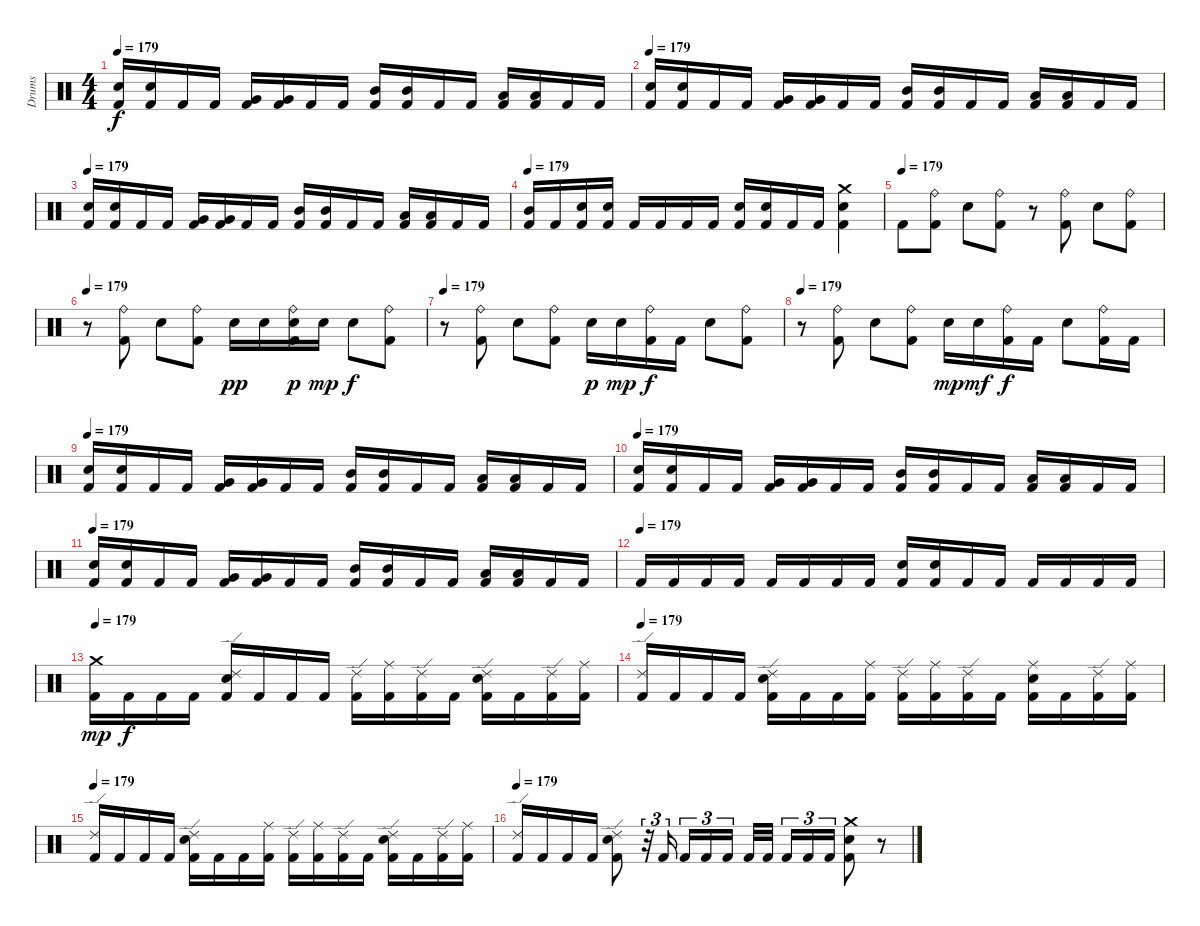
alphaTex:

\track ("Drums" "Drums") {instrument percussion}
\staff {score}
\articulation defaults
\ts (4 4)
\tempo 179
\clef neutral
\ks c
("Electric Snare (hit)" "Kick (hit) 2").16{dy f} ("Electric Snare (hit)" "Kick (hit) 2").16 "Kick (hit) 2".16 "Kick (hit) 2".16 ("Very Low Tom (hit)" "Kick (hit) 2").16 ("Very Low Tom (hit)" "Kick (hit) 2").16 "Kick (hit) 2".16 "Kick (hit) 2".16 ("Mid Tom (hit)" "Kick (hit) 2").16 ("Mid Tom (hit)" "Kick (hit) 2").16 "Kick (hit) 2".16 "Kick (hit) 2".16 ("Low Tom (hit)" "Kick (hit) 2").16 ("Low Tom (hit)" "Kick (hit) 2").16 "Kick (hit) 2".16 "Kick (hit) 2".16 |
\tempo 179
("Electric Snare (hit)" "Kick (hit) 2").16 ("Electric Snare (hit)" "Kick (hit) 2").16 "Kick (hit) 2".16 "Kick (hit) 2".16 ("Very Low Tom (hit)" "Kick (hit) 2").16 ("Very Low Tom (hit)" "Kick (hit) 2").16 "Kick (hit) 2".16 "Kick (hit) 2".16 ("Mid Tom (hit)" "Kick (hit) 2").16 ("Mid Tom (hit)" "Kick (hit) 2").16 "Kick (hit) 2".16 "Kick (hit) 2".16 ("Low Tom (hit)" "Kick (hit) 2").16 ("Low Tom (hit)" "Kick (hit) 2").16 "Kick (hit) 2".16 "Kick (hit) 2".16 |
\tempo 179
("Electric Snare (hit)" "Kick (hit) 2").16 ("Electric Snare (hit)" "Kick (hit) 2").16 "Kick (hit) 2".16 "Kick (hit) 2".16 ("Very Low Tom (hit)" "Kick (hit) 2").16 ("Very Low Tom (hit)" "Kick (hit) 2").16 "Kick (hit) 2".16 "Kick (hit) 2".16 ("Mid Tom (hit)" "Kick (hit) 2").16 ("Mid Tom (hit)" "Kick (hit) 2").16 "Kick (hit) 2".16 "Kick (hit) 2".16 ("Low Tom (hit)" "Kick (hit) 2").16 ("Low Tom (hit)" "Kick (hit) 2").16 "Kick (hit) 2".16 "Kick (hit) 2".16 |
\tempo 179
("Mid Tom (hit)" "Kick (hit) 2").16 "Kick (hit) 2".16 ("Electric Snare (hit)" "Kick (hit) 2").16 ("Electric Snare (hit)" "Kick (hit) 2").16 "Kick (hit) 2".16 "Kick (hit) 2".16 "Kick (hit) 2".16 "Kick (hit) 2".16 ("Electric Snare (hit)" "Kick (hit) 2").16 ("Electric Snare (hit)" "Kick (hit) 2").16 "Kick (hit) 2".16 "Kick (hit) 2".16 ("Crash medium (hit)" "Electric Snare (hit)" "Kick (hit) 2").4 |
\tempo (179)
"Kick (hit) 2".8 ("Ride (bell)" "Kick (hit) 2").8 "Electric Snare (hit)".8 ("Ride (bell)" "Kick (hit) 2").8 r.8 ("Ride (bell)" "Kick (hit) 2").8 "Electric Snare (hit)".8 ("Ride (bell)" "Kick (hit) 2").8 |
\tempo 179
r.8 ("Ride (bell)" "Kick (hit) 2").8 "Electric Snare (hit)".8 ("Ride (bell)" "Kick (hit) 2").8 "Electric Snare (hit)".16{dy pp} "Electric Snare (hit)".16 ("Ride (bell)" "Electric Snare (hit)" "Kick (hit) 2").16{dy p} "Electric Snare (hit)".16{dy mp} "Electric Snare (hit)".8{dy f} ("Ride (bell)" "Kick (hit) 2").8 |
\tempo 179
r.8 ("Ride (bell)" "Kick (hit) 2").8 "Electric Snare (hit)".8 ("Ride (bell)" "Kick (hit) 2").8 "Electric Snare (hit)".16{dy p} "Electric Snare (hit)".16{dy mp} ("Ride (bell)" "Kick (hit) 2").16{dy f} "Kick (hit) 2".16 "Electric Snare (hit)".8 ("Ride (bell)" "Kick (hit) 2").8 |
\tempo 179
r.8 ("Ride (bell)" "Kick (hit) 2").8 "Electric Snare (hit)".8 ("Ride (bell)" "Kick (hit) 2").8 "Electric Snare (hit)".16{dy mp} "Electric Snare (hit)".16{dy mf} ("Ride (bell)" "Kick (hit) 2").16{dy f} "Kick (hit) 2".16 "Electric Snare (hit)".8 ("Ride (bell)" "Kick (hit) 2").16 "Kick (hit) 2".16 |
\tempo 179
("Electric Snare (hit)" "Kick (hit) 2").16 ("Electric Snare (hit)" "Kick (hit) 2").16 "Kick (hit) 2".16 "Kick (hit) 2".16 ("Very Low Tom (hit)" "Kick (hit) 2").16 ("Very Low Tom (hit)" "Kick (hit) 2").16 "Kick (hit) 2".16 "Kick (hit) 2".16 ("Mid Tom (hit)" "Kick (hit) 2").16 ("Mid Tom (hit)" "Kick (hit) 2").16 "Kick (hit) 2".16 "Kick (hit) 2".16 ("Low Tom (hit)" "Kick (hit) 2").16 ("Low Tom (hit)" "Kick (hit) 2").16 "Kick (hit) 2".16 "Kick (hit) 2".16 |
\tempo 179
("Electric Snare (hit)" "Kick (hit) 2").16 ("Electric Snare (hit)" "Kick (hit) 2").16 "Kick (hit) 2".16 "Kick (hit) 2".16 ("Very Low Tom (hit)" "Kick (hit) 2").16 ("Very Low Tom (hit)" "Kick (hit) 2").16 "Kick (hit) 2".16 "Kick (hit) 2".16 ("Mid Tom (hit)" "Kick (hit) 2").16 ("Mid Tom (hit)" "Kick (hit) 2").16 "Kick (hit) 2".16 "Kick (hit) 2".16 ("Low Tom (hit)" "Kick (hit) 2").16 ("Low Tom (hit)" "Kick (hit) 2").16 "Kick (hit) 2".16 "Kick (hit) 2".16 |
\tempo 179
("Electric Snare (hit)" "Kick (hit) 2").16 ("Electric Snare (hit)" "Kick (hit) 2").16 "Kick (hit) 2".16 "Kick (hit) 2".16 ("Very Low Tom (hit)" "Kick (hit) 2").16 ("Very Low Tom (hit)" "Kick (hit) 2").16 "Kick (hit) 2".16 "Kick (hit) 2".16 ("Mid Tom (hit)" "Kick (hit) 2").16 ("Mid Tom (hit)" "Kick (hit) 2").16 "Kick (hit) 2".16 "Kick (hit) 2".16 ("Low Tom (hit)" "Kick (hit) 2").16 ("Low Tom (hit)" "Kick (hit) 2").16 "Kick (hit) 2".16 "Kick (hit) 2".16 |
\tempo (179)
"Kick (hit) 2".16 "Kick (hit) 2".16 "Kick (hit) 2".16 "Kick (hit) 2".16 "Kick (hit) 2".16 "Kick (hit) 2".16 "Kick (hit) 2".16 "Kick (hit) 2".16 ("Electric Snare (hit)" "Kick (hit) 2").16 ("Electric Snare (hit)" "Kick (hit) 2").16 "Kick (hit) 2".16 "Kick (hit) 2".16 "Kick (hit) 2".16 "Kick (hit) 2".16 "Kick (hit) 2".16 "Kick (hit) 2".16 |
\tempo 179
("Crash medium (hit)" "Kick (hit) 2").16{dy mp} "Kick (hit) 2".16{dy f} "Kick (hit) 2".16 "Kick (hit) 2".16 ("Ride (edge) 2" "Electric Snare (hit)" "Kick (hit) 2").16 "Kick (hit) 2".16 "Kick (hit) 2".16 "Kick (hit) 2".16 ("Ride (edge) 2" "Kick (hit) 2").16 ("Ride (middle)" "Kick (hit) 2").16 ("Ride (edge) 2" "Kick (hit) 2").16 "Kick (hit) 2".16 ("Ride (edge) 2" "Electric Snare (hit)" "Kick (hit) 2").16 "Kick (hit) 2".16 ("Ride (edge) 2" "Kick (hit) 2").16 ("Ride (middle)" "Kick (hit) 2").16 |
\tempo 179
("Ride (edge) 2" "Kick (hit) 2").16 "Kick (hit) 2".16 "Kick (hit) 2".16 "Kick (hit) 2".16 ("Ride (edge) 2" "Electric Snare (hit)" "Kick (hit) 2").16 "Kick (hit) 2".16 "Kick (hit) 2".16 ("Ride (middle)" "Kick (hit) 2").16 ("Ride (edge) 2" "Kick (hit) 2").16 ("Ride (middle)" "Kick (hit) 2").16 ("Ride (edge) 2" "Kick (hit) 2").16 "Kick (hit) 2".16 ("Ride (middle)" "Electric Snare (hit)" "Kick (hit) 2").16 "Kick (hit) 2".16 ("Ride (edge) 2" "Kick (hit) 2").16 ("Ride (middle)" "Kick (hit) 2").16 |
\tempo 179
("Ride (edge) 2" "Kick (hit) 2").16 "Kick (hit) 2".16 "Kick (hit) 2".16 "Kick (hit) 2".16 ("Ride (edge) 2" "Electric Snare (hit)" "Kick (hit) 2").16 "Kick (hit) 2".16 "Kick (hit) 2".16 ("Ride (middle)" "Kick (hit) 2").16 ("Ride (edge) 2" "Kick (hit) 2").16 ("Ride (middle)" "Kick (hit) 2").16 ("Ride (edge) 2" "Kick (hit) 2").16 "Kick (hit) 2".16 ("Ride (edge) 2" "Electric Snare (hit)" "Kick (hit) 2").16 "Kick (hit) 2".16 ("Ride (edge) 2" "Kick (hit) 2").16 ("Ride (middle)" "Kick (hit) 2").16 |
\tempo 179
("Ride (edge) 2" "Kick (hit) 2").16 "Kick (hit) 2".16 "Kick (hit) 2".16 "Kick (hit) 2".16 ("Ride (edge) 2" "Electric Snare (hit)" "Kick (hit) 2").8 r.32{tu (3 2)} "Kick (hit) 2".16{tu (3 2)} "Kick (hit) 2".16{tu (3 2)} "Kick (hit) 2".16{tu (3 2)} "Kick (hit) 2".16{tu (3 2)} "Kick (hit) 2".32 "Kick (hit) 2".32 "Kick (hit) 2".16{tu (3 2)} "Kick (hit) 2".16{tu (3 2)} "Kick (hit) 2".16{tu (3 2)} ("Crash medium (hit)" "Electric Snare (hit)" "Kick (hit) 2").8 r.8
